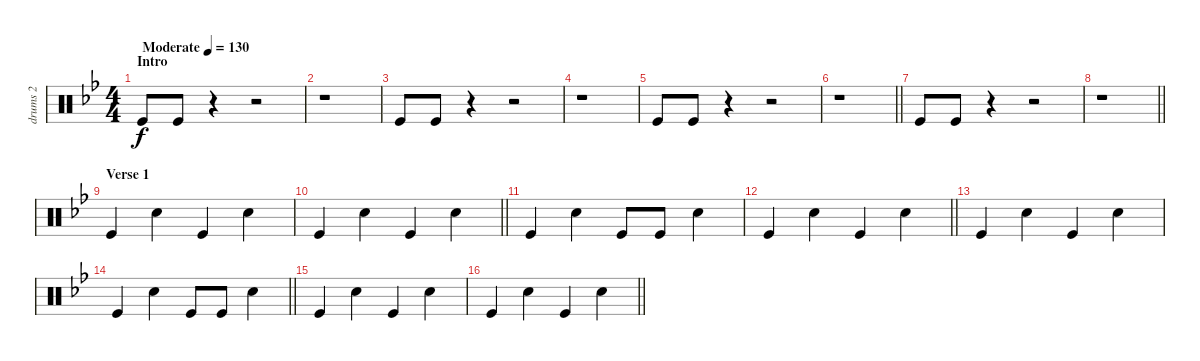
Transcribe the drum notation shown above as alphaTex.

\track ("drums 2" "drums 2") {instrument percussion}
\staff {score}
\articulation defaults
\ts (4 4)
\section ("" "Intro")
\tempo (130 "Moderate")
\clef neutral
\ks bb "Kick (hit)".8{dy f} "Kick (hit)".8
r.4 r.2 |
r.1 |
"Kick (hit)".8 "Kick (hit)".8 r.4 r.2 |
r.1 |
"Kick (hit)".8 "Kick (hit)".8 r.4 r.2 |
\barLineRight lightlight
r.1 |
\section ("" "")
"Kick (hit)".8 "Kick (hit)".8 r.4 r.2 |
\barLineRight lightlight
r.1 |
\section ("" "Verse 1")
"Kick (hit)".4 "Snare (hit) 2".4 "Kick (hit)".4 "Snare (hit) 2".4 |
\barLineRight lightlight "Kick (hit)".4 "Snare (hit) 2".4 "Kick (hit)".4 "Snare (hit) 2".4
|
"Kick (hit)".4 "Snare (hit) 2".4 "Kick (hit)".8 "Kick (hit)".8 "Snare (hit) 2".4 |
\barLineRight lightlight "Kick (hit)".4 "Snare (hit) 2".4 "Kick (hit)".4 "Snare (hit) 2".4
|
"Kick (hit)".4 "Snare (hit) 2".4 "Kick (hit)".4 "Snare (hit) 2".4 |
\barLineRight lightlight "Kick (hit)".4 "Snare (hit) 2".4 "Kick (hit)".8 "Kick (hit)".8 "Snare (hit) 2".4
|
"Kick (hit)".4 "Snare (hit) 2".4 "Kick (hit)".4 "Snare (hit) 2".4 |
\barLineRight lightlight "Kick (hit)".4 "Snare (hit) 2".4 "Kick (hit)".4 "Snare (hit) 2".4
